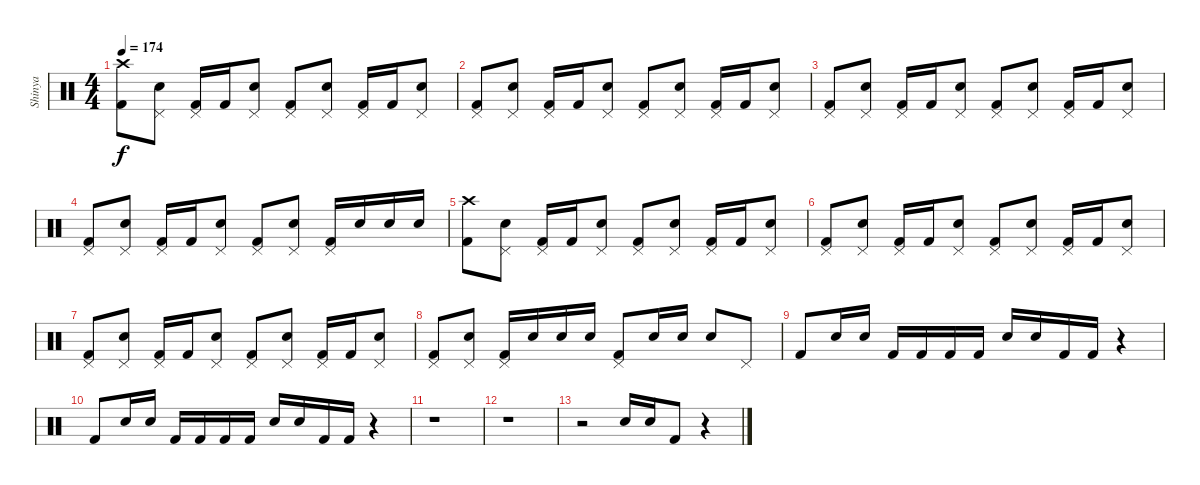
\track ("Shinya" "Shinya") {instrument percussion}
\staff {score}
\articulation defaults
\ts (4 4)
\tempo 174
\clef neutral
\ks c
("Crash high (hit)" "Kick (hit) 2").8{dy f} ("Pedal Hi-Hat (hit)" "Electric Snare (hit)").8 ("Pedal Hi-Hat (hit)" "Kick (hit) 2").16 "Kick (hit) 2".16 ("Pedal Hi-Hat (hit)" "Electric Snare (hit)").8 ("Pedal Hi-Hat (hit)" "Kick (hit) 2").8 ("Pedal Hi-Hat (hit)" "Electric Snare (hit)").8 ("Pedal Hi-Hat (hit)" "Kick (hit) 2").16 "Kick (hit) 2".16 ("Pedal Hi-Hat (hit)" "Electric Snare (hit)").8 |
("Pedal Hi-Hat (hit)" "Kick (hit) 2").8 ("Pedal Hi-Hat (hit)" "Electric Snare (hit)").8 ("Pedal Hi-Hat (hit)" "Kick (hit) 2").16 "Kick (hit) 2".16 ("Pedal Hi-Hat (hit)" "Electric Snare (hit)").8 ("Pedal Hi-Hat (hit)" "Kick (hit) 2").8 ("Pedal Hi-Hat (hit)" "Electric Snare (hit)").8 ("Pedal Hi-Hat (hit)" "Kick (hit) 2").16 "Kick (hit) 2".16 ("Pedal Hi-Hat (hit)" "Electric Snare (hit)").8 |
("Pedal Hi-Hat (hit)" "Kick (hit) 2").8 ("Pedal Hi-Hat (hit)" "Electric Snare (hit)").8 ("Pedal Hi-Hat (hit)" "Kick (hit) 2").16 "Kick (hit) 2".16 ("Pedal Hi-Hat (hit)" "Electric Snare (hit)").8 ("Pedal Hi-Hat (hit)" "Kick (hit) 2").8 ("Pedal Hi-Hat (hit)" "Electric Snare (hit)").8 ("Pedal Hi-Hat (hit)" "Kick (hit) 2").16 "Kick (hit) 2".16 ("Pedal Hi-Hat (hit)" "Electric Snare (hit)").8 |
("Pedal Hi-Hat (hit)" "Kick (hit) 2").8 ("Pedal Hi-Hat (hit)" "Electric Snare (hit)").8 ("Pedal Hi-Hat (hit)" "Kick (hit) 2").16 "Kick (hit) 2".16 ("Pedal Hi-Hat (hit)" "Electric Snare (hit)").8 ("Pedal Hi-Hat (hit)" "Kick (hit) 2").8 ("Pedal Hi-Hat (hit)" "Electric Snare (hit)").8 ("Pedal Hi-Hat (hit)" "Kick (hit) 2").16 "Electric Snare (hit)".16 "Electric Snare (hit)".16 "Electric Snare (hit)".16 |
("Crash high (hit)" "Kick (hit) 2").8 ("Pedal Hi-Hat (hit)" "Electric Snare (hit)").8 ("Pedal Hi-Hat (hit)" "Kick (hit) 2").16 "Kick (hit) 2".16 ("Pedal Hi-Hat (hit)" "Electric Snare (hit)").8 ("Pedal Hi-Hat (hit)" "Kick (hit) 2").8 ("Pedal Hi-Hat (hit)" "Electric Snare (hit)").8 ("Pedal Hi-Hat (hit)" "Kick (hit) 2").16 "Kick (hit) 2".16 ("Pedal Hi-Hat (hit)" "Electric Snare (hit)").8 |
("Pedal Hi-Hat (hit)" "Kick (hit) 2").8 ("Pedal Hi-Hat (hit)" "Electric Snare (hit)").8 ("Pedal Hi-Hat (hit)" "Kick (hit) 2").16 "Kick (hit) 2".16 ("Pedal Hi-Hat (hit)" "Electric Snare (hit)").8 ("Pedal Hi-Hat (hit)" "Kick (hit) 2").8 ("Pedal Hi-Hat (hit)" "Electric Snare (hit)").8 ("Pedal Hi-Hat (hit)" "Kick (hit) 2").16 "Kick (hit) 2".16 ("Pedal Hi-Hat (hit)" "Electric Snare (hit)").8 |
("Pedal Hi-Hat (hit)" "Kick (hit) 2").8 ("Pedal Hi-Hat (hit)" "Electric Snare (hit)").8 ("Pedal Hi-Hat (hit)" "Kick (hit) 2").16 "Kick (hit) 2".16 ("Pedal Hi-Hat (hit)" "Electric Snare (hit)").8 ("Pedal Hi-Hat (hit)" "Kick (hit) 2").8 ("Pedal Hi-Hat (hit)" "Electric Snare (hit)").8 ("Pedal Hi-Hat (hit)" "Kick (hit) 2").16 "Kick (hit) 2".16 ("Pedal Hi-Hat (hit)" "Electric Snare (hit)").8 |
("Pedal Hi-Hat (hit)" "Kick (hit) 2").8 ("Pedal Hi-Hat (hit)" "Electric Snare (hit)").8 ("Pedal Hi-Hat (hit)" "Kick (hit) 2").16 "Electric Snare (hit)".16 "Electric Snare (hit)".16 "Electric Snare (hit)".16 ("Pedal Hi-Hat (hit)" "Kick (hit) 2").8 "Electric Snare (hit)".16 "Electric Snare (hit)".16 "Electric Snare (hit)".8 "Pedal Hi-Hat (hit)".8 |
"Kick (hit) 2".8 "Electric Snare (hit)".16 "Electric Snare (hit)".16 "Kick (hit) 2".16 "Kick (hit) 2".16 "Kick (hit) 2".16 "Kick (hit) 2".16 "Electric Snare (hit)".16 "Electric Snare (hit)".16 "Kick (hit) 2".16 "Kick (hit) 2".16 r.4 |
"Kick (hit) 2".8 "Electric Snare (hit)".16 "Electric Snare (hit)".16 "Kick (hit) 2".16 "Kick (hit) 2".16 "Kick (hit) 2".16 "Kick (hit) 2".16 "Electric Snare (hit)".16 "Electric Snare (hit)".16 "Kick (hit) 2".16 "Kick (hit) 2".16 r.4 |
r.1 |
r.1 |
r.2 "Electric Snare (hit)".16 "Electric Snare (hit)".16 "Kick (hit) 2".8 r.4
